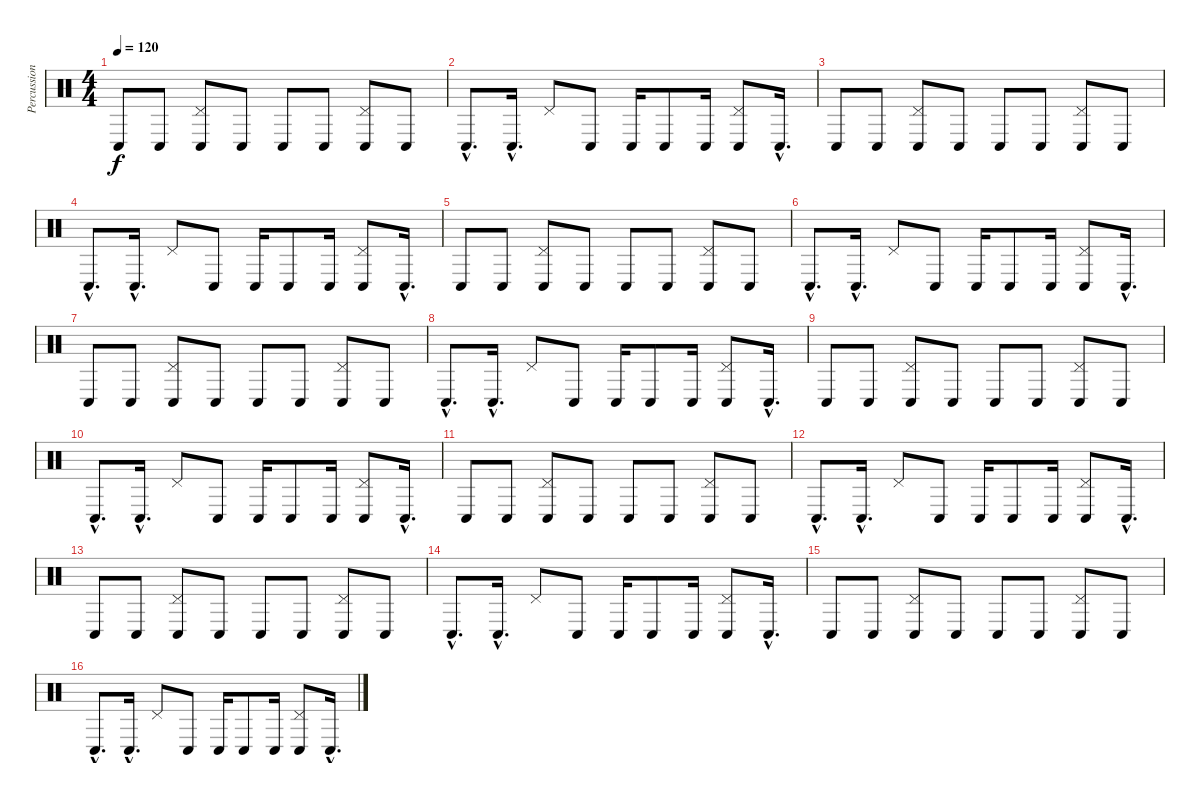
\track ("Percussion" "Percussion") {instrument percussion}
\staff {score}
\articulation defaults
\ts (4 4)
\tempo 120
\clef neutral
\ks c "Conga low (hit)".8{dy f} "Conga low (hit)".8
("Pedal Hi-Hat (hit)" "Conga low (hit)").8 "Conga low (hit)".8 "Conga low (hit)".8 "Conga low (hit)".8 ("Pedal Hi-Hat (hit)" "Conga low (hit)").8 "Conga low (hit)".8 |
"Conga low (hit)"{hac}.8{d} "Conga low (hit)"{hac}.16{d} "Pedal Hi-Hat (hit)".8 "Conga low (hit)".8 "Conga low (hit)".16 "Conga low (hit)".8 "Conga low (hit)".16 ("Pedal Hi-Hat (hit)" "Conga low (hit)").8 "Conga low (hit)"{hac}.16{d} |
"Conga low (hit)".8 "Conga low (hit)".8 ("Pedal Hi-Hat (hit)" "Conga low (hit)").8 "Conga low (hit)".8 "Conga low (hit)".8 "Conga low (hit)".8 ("Pedal Hi-Hat (hit)" "Conga low (hit)").8 "Conga low (hit)".8 |
"Conga low (hit)"{hac}.8{d} "Conga low (hit)"{hac}.16{d} "Pedal Hi-Hat (hit)".8 "Conga low (hit)".8 "Conga low (hit)".16 "Conga low (hit)".8 "Conga low (hit)".16 ("Pedal Hi-Hat (hit)" "Conga low (hit)").8 "Conga low (hit)"{hac}.16{d} |
"Conga low (hit)".8 "Conga low (hit)".8 ("Pedal Hi-Hat (hit)" "Conga low (hit)").8 "Conga low (hit)".8 "Conga low (hit)".8 "Conga low (hit)".8 ("Pedal Hi-Hat (hit)" "Conga low (hit)").8 "Conga low (hit)".8 |
"Conga low (hit)"{hac}.8{d} "Conga low (hit)"{hac}.16{d} "Pedal Hi-Hat (hit)".8 "Conga low (hit)".8 "Conga low (hit)".16 "Conga low (hit)".8 "Conga low (hit)".16 ("Pedal Hi-Hat (hit)" "Conga low (hit)").8 "Conga low (hit)"{hac}.16{d} |
"Conga low (hit)".8 "Conga low (hit)".8 ("Pedal Hi-Hat (hit)" "Conga low (hit)").8 "Conga low (hit)".8 "Conga low (hit)".8 "Conga low (hit)".8 ("Pedal Hi-Hat (hit)" "Conga low (hit)").8 "Conga low (hit)".8 |
"Conga low (hit)"{hac}.8{d} "Conga low (hit)"{hac}.16{d} "Pedal Hi-Hat (hit)".8 "Conga low (hit)".8 "Conga low (hit)".16 "Conga low (hit)".8 "Conga low (hit)".16 ("Pedal Hi-Hat (hit)" "Conga low (hit)").8 "Conga low (hit)"{hac}.16{d} |
"Conga low (hit)".8 "Conga low (hit)".8 ("Pedal Hi-Hat (hit)" "Conga low (hit)").8 "Conga low (hit)".8 "Conga low (hit)".8 "Conga low (hit)".8 ("Pedal Hi-Hat (hit)" "Conga low (hit)").8 "Conga low (hit)".8 |
"Conga low (hit)"{hac}.8{d} "Conga low (hit)"{hac}.16{d} "Pedal Hi-Hat (hit)".8 "Conga low (hit)".8 "Conga low (hit)".16 "Conga low (hit)".8 "Conga low (hit)".16 ("Pedal Hi-Hat (hit)" "Conga low (hit)").8 "Conga low (hit)"{hac}.16{d} |
"Conga low (hit)".8 "Conga low (hit)".8 ("Pedal Hi-Hat (hit)" "Conga low (hit)").8 "Conga low (hit)".8 "Conga low (hit)".8 "Conga low (hit)".8 ("Pedal Hi-Hat (hit)" "Conga low (hit)").8 "Conga low (hit)".8 |
"Conga low (hit)"{hac}.8{d} "Conga low (hit)"{hac}.16{d} "Pedal Hi-Hat (hit)".8 "Conga low (hit)".8 "Conga low (hit)".16 "Conga low (hit)".8 "Conga low (hit)".16 ("Pedal Hi-Hat (hit)" "Conga low (hit)").8 "Conga low (hit)"{hac}.16{d} |
"Conga low (hit)".8 "Conga low (hit)".8 ("Pedal Hi-Hat (hit)" "Conga low (hit)").8 "Conga low (hit)".8 "Conga low (hit)".8 "Conga low (hit)".8 ("Pedal Hi-Hat (hit)" "Conga low (hit)").8 "Conga low (hit)".8 |
"Conga low (hit)"{hac}.8{d} "Conga low (hit)"{hac}.16{d} "Pedal Hi-Hat (hit)".8 "Conga low (hit)".8 "Conga low (hit)".16 "Conga low (hit)".8 "Conga low (hit)".16 ("Pedal Hi-Hat (hit)" "Conga low (hit)").8 "Conga low (hit)"{hac}.16{d} |
"Conga low (hit)".8 "Conga low (hit)".8 ("Pedal Hi-Hat (hit)" "Conga low (hit)").8 "Conga low (hit)".8 "Conga low (hit)".8 "Conga low (hit)".8 ("Pedal Hi-Hat (hit)" "Conga low (hit)").8 "Conga low (hit)".8 |
"Conga low (hit)"{hac}.8{d} "Conga low (hit)"{hac}.16{d} "Pedal Hi-Hat (hit)".8 "Conga low (hit)".8 "Conga low (hit)".16 "Conga low (hit)".8 "Conga low (hit)".16 ("Pedal Hi-Hat (hit)" "Conga low (hit)").8 "Conga low (hit)"{hac}.16{d}
